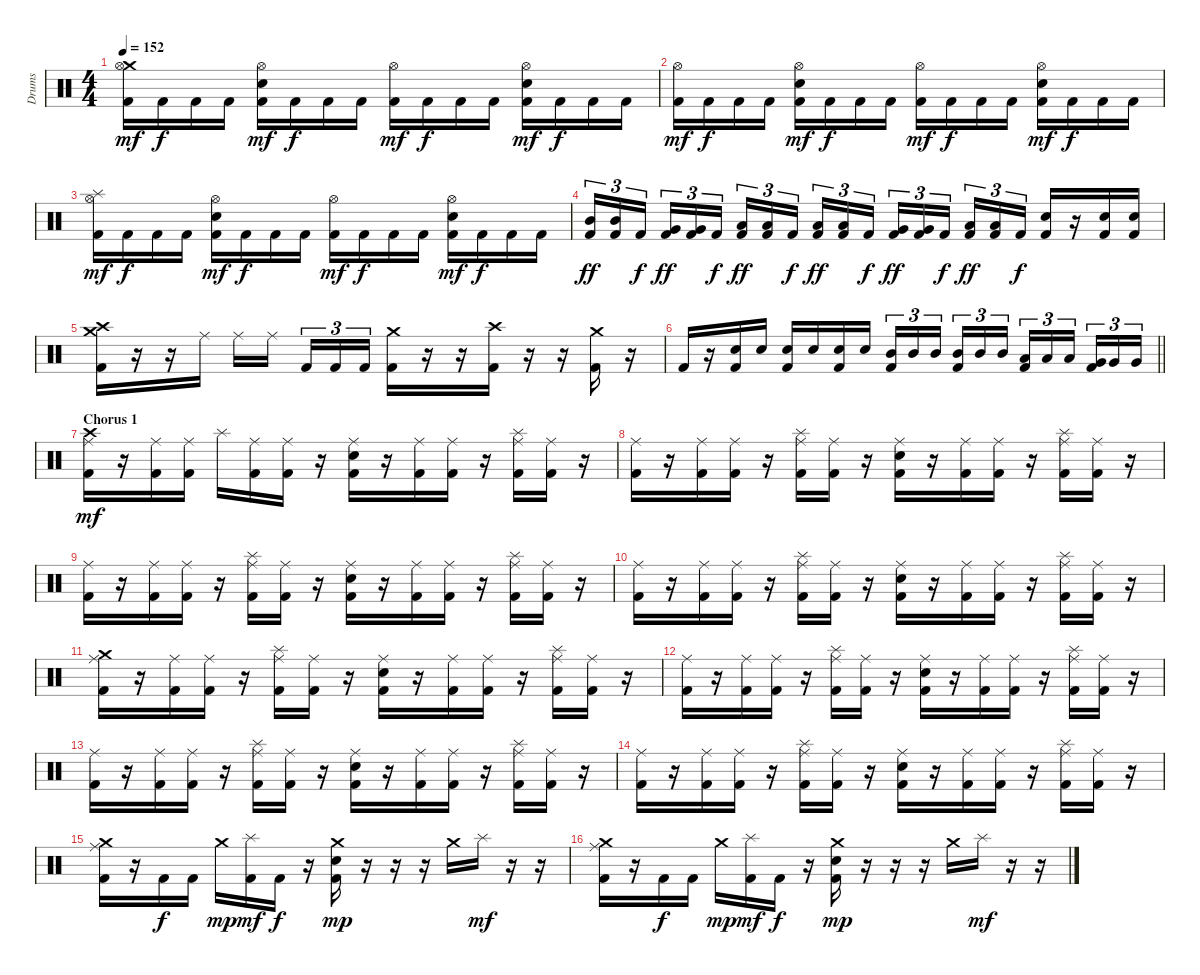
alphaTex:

\track ("Drums" "Drums") {instrument percussion}
\staff {score}
\articulation defaults
\ts (4 4)
\tempo 152
\clef neutral
\ks c
("Crash medium (hit)" "Hi-Hat (open)" "Kick (hit) 2").16{dy mf} "Kick (hit) 2".16{dy f} "Kick (hit) 2".16 "Kick (hit) 2".16 ("Hi-Hat (open)" "Snare (hit) 2" "Kick (hit) 2").16{dy mf} "Kick (hit) 2".16{dy f} "Kick (hit) 2".16 "Kick (hit) 2".16 ("Hi-Hat (open)" "Kick (hit) 2").16{dy mf} "Kick (hit) 2".16{dy f} "Kick (hit) 2".16 "Kick (hit) 2".16 ("Hi-Hat (open)" "Snare (hit) 2" "Kick (hit) 2").16{dy mf} "Kick (hit) 2".16{dy f} "Kick (hit) 2".16 "Kick (hit) 2".16 |
("Hi-Hat (open)" "Kick (hit) 2").16{dy mf} "Kick (hit) 2".16{dy f} "Kick (hit) 2".16 "Kick (hit) 2".16 ("Hi-Hat (open)" "Snare (hit) 2" "Kick (hit) 2").16{dy mf} "Kick (hit) 2".16{dy f} "Kick (hit) 2".16 "Kick (hit) 2".16 ("Hi-Hat (open)" "Kick (hit) 2").16{dy mf} "Kick (hit) 2".16{dy f} "Kick (hit) 2".16 "Kick (hit) 2".16 ("Hi-Hat (open)" "Snare (hit) 2" "Kick (hit) 2").16{dy mf} "Kick (hit) 2".16{dy f} "Kick (hit) 2".16 "Kick (hit) 2".16 |
("Splash (hit)" "Hi-Hat (open)" "Kick (hit) 2").16{dy mf} "Kick (hit) 2".16{dy f} "Kick (hit) 2".16 "Kick (hit) 2".16 ("Hi-Hat (open)" "Snare (hit) 2" "Kick (hit) 2").16{dy mf} "Kick (hit) 2".16{dy f} "Kick (hit) 2".16 "Kick (hit) 2".16 ("Hi-Hat (open)" "Kick (hit) 2").16{dy mf} "Kick (hit) 2".16{dy f} "Kick (hit) 2".16 "Kick (hit) 2".16 ("Hi-Hat (open)" "Snare (hit) 2" "Kick (hit) 2").16{dy mf} "Kick (hit) 2".16{dy f} "Kick (hit) 2".16 "Kick (hit) 2".16 |
("Mid Tom (hit)" "Kick (hit) 2").16{tu (3 2) dy ff} ("Mid Tom (hit)" "Kick (hit) 2").16{tu (3 2)} "Kick (hit) 2".16{tu (3 2) dy f} ("Very Low Tom (hit)" "Kick (hit) 2").16{tu (3 2) dy ff} ("Very Low Tom (hit)" "Kick (hit) 2").16{tu (3 2)} "Kick (hit) 2".16{tu (3 2) dy f} ("Low Tom (hit)" "Kick (hit) 2").16{tu (3 2) dy ff} ("Low Tom (hit)" "Kick (hit) 2").16{tu (3 2)} "Kick (hit) 2".16{tu (3 2) dy f} ("Low Floor Tom (hit)" "Kick (hit) 2").16{tu (3 2) dy ff} ("Low Floor Tom (hit)" "Kick (hit) 2").16{tu (3 2)} "Kick (hit) 2".16{tu (3 2) dy f} ("Very Low Tom (hit)" "Kick (hit) 2").16{tu (3 2) dy ff} ("Very Low Tom (hit)" "Kick (hit) 2").16{tu (3 2)} "Kick (hit) 2".16{tu (3 2) dy f} ("Low Floor Tom (hit)" "Kick (hit) 2").16{tu (3 2) dy ff} ("Low Floor Tom (hit)" "Kick (hit) 2").16{tu (3 2)} "Kick (hit) 2".16{tu (3 2) dy f} ("Snare (hit) 2" "Kick (hit) 2").16 r.16 ("Snare (hit) 2" "Kick (hit) 2").16 ("Snare (hit) 2" "Kick (hit) 2").16 |
("Crash medium (hit)" "Crash high (hit)" "Kick (hit) 2").16 r.16 r.16 "Ride (middle)".16 "Ride (middle)".16 "Ride (middle)".16 "Kick (hit) 2".16{tu (3 2)} "Kick (hit) 2".16{tu (3 2)} "Kick (hit) 2".16{tu (3 2)} ("Crash medium (hit)" "Kick (hit) 2").16 r.16 r.16 ("Crash high (hit)" "Kick (hit) 2").16 r.16 r.16 ("Crash medium (hit)" "Kick (hit) 2").16 r.16 |
\barLineRight lightlight "Kick (hit) 2".16
r.16 ("Snare (hit) 2" "Kick (hit) 2").16 "Snare (hit) 2".16 ("Snare (hit) 2" "Kick (hit) 2").16 "Snare (hit) 2".16 ("Snare (hit) 2" "Kick (hit) 2").16 "Snare (hit) 2".16 ("Mid Tom (hit)" "Kick (hit) 2").16{tu (3 2)} "Mid Tom (hit)".16{tu (3 2)} "Mid Tom (hit)".16{tu (3 2)} ("Mid Tom (hit)" "Kick (hit) 2").16{tu (3 2)} "Mid Tom (hit)".16{tu (3 2)} "Mid Tom (hit)".16{tu (3 2)} ("Low Tom (hit)" "Kick (hit) 2").16{tu (3 2)} "Low Tom (hit)".16{tu (3 2)} "Low Tom (hit)".16{tu (3 2)} ("Very Low Tom (hit)" "Kick (hit) 2").16{tu (3 2)} "Very Low Tom (hit)".16{tu (3 2)} "Very Low Tom (hit)".16{tu (3 2)} |
\section ("" "Chorus 1")
("Crash high (hit)" "Ride (middle)" "Kick (hit) 2").16{dy mf} r.16 ("Ride (middle)" "Kick (hit) 2").16 ("Ride (middle)" "Kick (hit) 2").16 "Splash (hit)".16 ("Ride (middle)" "Kick (hit) 2").16 ("Ride (middle)" "Kick (hit) 2").16 r.16 ("Ride (middle)" "Snare (hit) 2" "Kick (hit) 2").16 r.16 ("Ride (middle)" "Kick (hit) 2").16 ("Ride (middle)" "Kick (hit) 2").16 r.16 ("Splash (hit)" "Ride (middle)" "Kick (hit) 2").16 ("Ride (middle)" "Kick (hit) 2").16 r.16 |
("Ride (middle)" "Kick (hit) 2").16 r.16 ("Ride (middle)" "Kick (hit) 2").16 ("Ride (middle)" "Kick (hit) 2").16 r.16 ("Splash (hit)" "Ride (middle)" "Kick (hit) 2").16 ("Ride (middle)" "Kick (hit) 2").16 r.16 ("Ride (middle)" "Snare (hit) 2" "Kick (hit) 2").16 r.16 ("Ride (middle)" "Kick (hit) 2").16 ("Ride (middle)" "Kick (hit) 2").16 r.16 ("Splash (hit)" "Ride (middle)" "Kick (hit) 2").16 ("Ride (middle)" "Kick (hit) 2").16 r.16 |
("Ride (middle)" "Kick (hit) 2").16 r.16 ("Ride (middle)" "Kick (hit) 2").16 ("Ride (middle)" "Kick (hit) 2").16 r.16 ("Splash (hit)" "Ride (middle)" "Kick (hit) 2").16 ("Ride (middle)" "Kick (hit) 2").16 r.16 ("Ride (middle)" "Snare (hit) 2" "Kick (hit) 2").16 r.16 ("Ride (middle)" "Kick (hit) 2").16 ("Ride (middle)" "Kick (hit) 2").16 r.16 ("Splash (hit)" "Ride (middle)" "Kick (hit) 2").16 ("Ride (middle)" "Kick (hit) 2").16 r.16 |
("Ride (middle)" "Kick (hit) 2").16 r.16 ("Ride (middle)" "Kick (hit) 2").16 ("Ride (middle)" "Kick (hit) 2").16 r.16 ("Splash (hit)" "Ride (middle)" "Kick (hit) 2").16 ("Ride (middle)" "Kick (hit) 2").16 r.16 ("Ride (middle)" "Snare (hit) 2" "Kick (hit) 2").16 r.16 ("Ride (middle)" "Kick (hit) 2").16 ("Ride (middle)" "Kick (hit) 2").16 r.16 ("Splash (hit)" "Ride (middle)" "Kick (hit) 2").16 ("Ride (middle)" "Kick (hit) 2").16 r.16 |
("Crash medium (hit)" "Ride (middle)" "Kick (hit) 2").16 r.16 ("Ride (middle)" "Kick (hit) 2").16 ("Ride (middle)" "Kick (hit) 2").16 r.16 ("Splash (hit)" "Ride (middle)" "Kick (hit) 2").16 ("Ride (middle)" "Kick (hit) 2").16 r.16 ("Ride (middle)" "Snare (hit) 2" "Kick (hit) 2").16 r.16 ("Ride (middle)" "Kick (hit) 2").16 ("Ride (middle)" "Kick (hit) 2").16 r.16 ("Splash (hit)" "Ride (middle)" "Kick (hit) 2").16 ("Ride (middle)" "Kick (hit) 2").16 r.16 |
("Ride (middle)" "Kick (hit) 2").16 r.16 ("Ride (middle)" "Kick (hit) 2").16 ("Ride (middle)" "Kick (hit) 2").16 r.16 ("Splash (hit)" "Ride (middle)" "Kick (hit) 2").16 ("Ride (middle)" "Kick (hit) 2").16 r.16 ("Ride (middle)" "Snare (hit) 2" "Kick (hit) 2").16 r.16 ("Ride (middle)" "Kick (hit) 2").16 ("Ride (middle)" "Kick (hit) 2").16 r.16 ("Splash (hit)" "Ride (middle)" "Kick (hit) 2").16 ("Ride (middle)" "Kick (hit) 2").16 r.16 |
("Ride (middle)" "Kick (hit) 2").16 r.16 ("Ride (middle)" "Kick (hit) 2").16 ("Ride (middle)" "Kick (hit) 2").16 r.16 ("Splash (hit)" "Ride (middle)" "Kick (hit) 2").16 ("Ride (middle)" "Kick (hit) 2").16 r.16 ("Ride (middle)" "Snare (hit) 2" "Kick (hit) 2").16 r.16 ("Ride (middle)" "Kick (hit) 2").16 ("Ride (middle)" "Kick (hit) 2").16 r.16 ("Splash (hit)" "Ride (middle)" "Kick (hit) 2").16 ("Ride (middle)" "Kick (hit) 2").16 r.16 |
("Ride (middle)" "Kick (hit) 2").16 r.16 ("Ride (middle)" "Kick (hit) 2").16 ("Ride (middle)" "Kick (hit) 2").16 r.16 ("Splash (hit)" "Ride (middle)" "Kick (hit) 2").16 ("Ride (middle)" "Kick (hit) 2").16 r.16 ("Ride (middle)" "Snare (hit) 2" "Kick (hit) 2").16 r.16 ("Ride (middle)" "Kick (hit) 2").16 ("Ride (middle)" "Kick (hit) 2").16 r.16 ("Splash (hit)" "Ride (middle)" "Kick (hit) 2").16 ("Ride (middle)" "Kick (hit) 2").16 r.16 |
("Crash medium (hit)" "Ride (middle)" "Kick (hit) 2").16 r.16 "Kick (hit) 2".16{dy f} "Kick (hit) 2".16 "Crash medium (hit)".16{dy mp} ("Splash (hit)" "Kick (hit) 2").16{dy mf} "Kick (hit) 2".16{dy f} r.16 ("Crash medium (hit)" "Snare (hit) 2" "Kick (hit) 2").16{dy mp} r.16 r.16 r.16 "Crash medium (hit)".16 "Splash (hit)".16{dy mf} r.16 r.16 |
("Crash medium (hit)" "Ride (middle)" "Kick (hit) 2").16 r.16 "Kick (hit) 2".16{dy f} "Kick (hit) 2".16 "Crash medium (hit)".16{dy mp} ("Splash (hit)" "Kick (hit) 2").16{dy mf} "Kick (hit) 2".16{dy f} r.16 ("Crash medium (hit)" "Snare (hit) 2" "Kick (hit) 2").16{dy mp} r.16 r.16 r.16 "Crash medium (hit)".16 "Splash (hit)".16{dy mf} r.16 r.16
